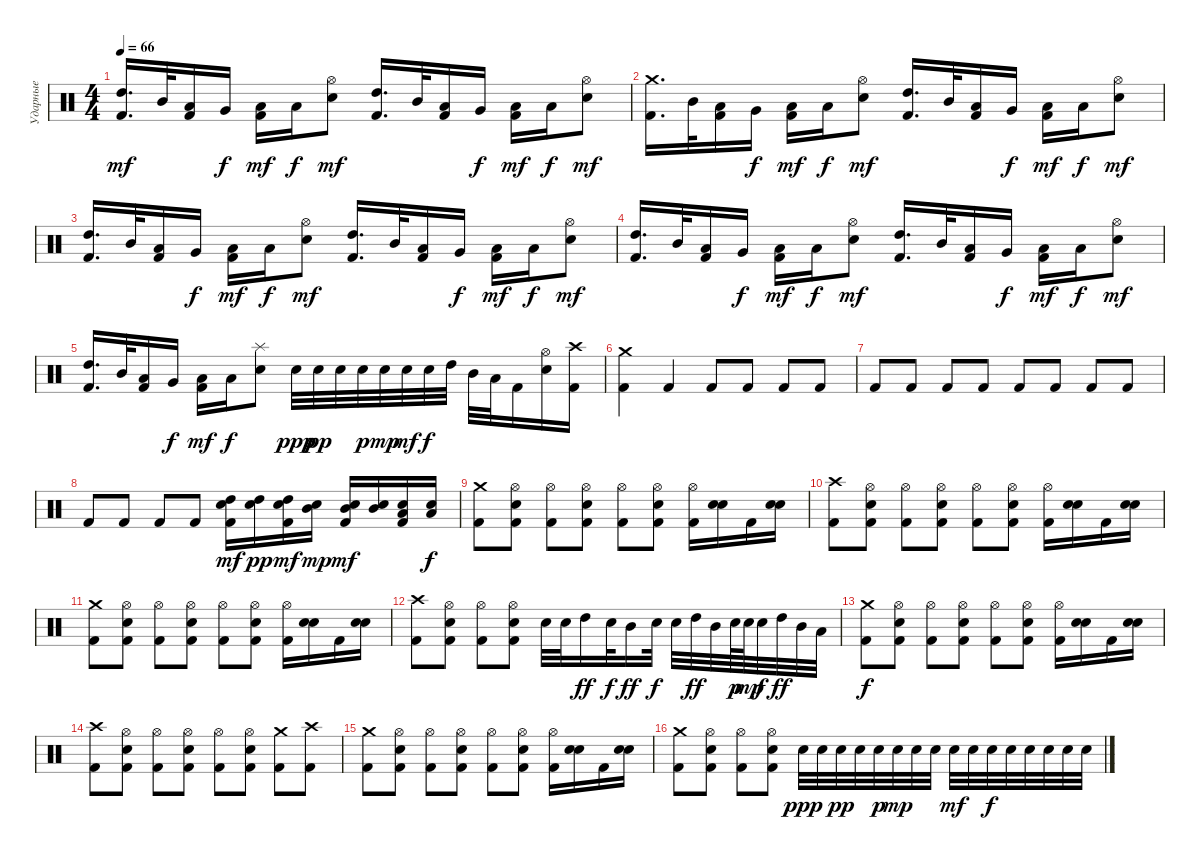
\track ("Ударные" "Ударные") {instrument percussion}
\staff {score}
\articulation defaults
\ts (4 4)
\tempo 66
\clef neutral
\ks c
("High Tom (hit)" "Kick (hit) 2").16{d dy mf} "Mid Tom (hit)".32 ("Low Tom (hit)" "Kick (hit) 2").16 "Very Low Tom (hit)".16{dy f} ("Low Floor Tom (hit)" "Kick (hit) 2").16{dy mf} "Low Tom (hit)".16{dy f} ("Hi-Hat (open)" "Snare (hit) 2").8{dy mf} ("High Tom (hit)" "Kick (hit) 2").16{d} "Mid Tom (hit)".32 ("Low Tom (hit)" "Kick (hit) 2").16 "Very Low Tom (hit)".16{dy f} ("Low Floor Tom (hit)" "Kick (hit) 2").16{dy mf} "Low Tom (hit)".16{dy f} ("Hi-Hat (open)" "Snare (hit) 2").8{dy mf} |
("Crash medium (hit)" "Kick (hit) 2").16{d} "Mid Tom (hit)".32 ("Low Tom (hit)" "Kick (hit) 2").16 "Very Low Tom (hit)".16{dy f} ("Low Floor Tom (hit)" "Kick (hit) 2").16{dy mf} "Low Tom (hit)".16{dy f} ("Hi-Hat (open)" "Snare (hit) 2").8{dy mf} ("High Tom (hit)" "Kick (hit) 2").16{d} "Mid Tom (hit)".32 ("Low Tom (hit)" "Kick (hit) 2").16 "Very Low Tom (hit)".16{dy f} ("Low Floor Tom (hit)" "Kick (hit) 2").16{dy mf} "Low Tom (hit)".16{dy f} ("Hi-Hat (open)" "Snare (hit) 2").8{dy mf} |
("High Tom (hit)" "Kick (hit) 2").16{d} "Mid Tom (hit)".32 ("Low Tom (hit)" "Kick (hit) 2").16 "Very Low Tom (hit)".16{dy f} ("Low Floor Tom (hit)" "Kick (hit) 2").16{dy mf} "Low Tom (hit)".16{dy f} ("Hi-Hat (open)" "Snare (hit) 2").8{dy mf} ("High Tom (hit)" "Kick (hit) 2").16{d} "Mid Tom (hit)".32 ("Low Tom (hit)" "Kick (hit) 2").16 "Very Low Tom (hit)".16{dy f} ("Low Floor Tom (hit)" "Kick (hit) 2").16{dy mf} "Low Tom (hit)".16{dy f} ("Hi-Hat (open)" "Snare (hit) 2").8{dy mf} |
("High Tom (hit)" "Kick (hit) 2").16{d} "Mid Tom (hit)".32 ("Low Tom (hit)" "Kick (hit) 2").16 "Very Low Tom (hit)".16{dy f} ("Low Floor Tom (hit)" "Kick (hit) 2").16{dy mf} "Low Tom (hit)".16{dy f} ("Hi-Hat (open)" "Snare (hit) 2").8{dy mf} ("High Tom (hit)" "Kick (hit) 2").16{d} "Mid Tom (hit)".32 ("Low Tom (hit)" "Kick (hit) 2").16 "Very Low Tom (hit)".16{dy f} ("Low Floor Tom (hit)" "Kick (hit) 2").16{dy mf} "Low Tom (hit)".16{dy f} ("Hi-Hat (open)" "Snare (hit) 2").8{dy mf} |
("High Tom (hit)" "Kick (hit) 2").16{d} "Mid Tom (hit)".32 ("Low Tom (hit)" "Kick (hit) 2").16 "Very Low Tom (hit)".16{dy f} ("Low Floor Tom (hit)" "Kick (hit) 2").16{dy mf} "Low Tom (hit)".16{dy f} ("Splash (hit)" "Snare (hit) 2").8 "Snare (hit) 2".32{dy ppp} "Snare (hit) 2".32{dy pp} "Snare (hit) 2".32 "Snare (hit) 2".32{dy p} "Snare (hit) 2".32{dy mp} "Snare (hit) 2".32{dy mf} "Snare (hit) 2".32{dy f} "High Tom (hit)".32 "Mid Tom (hit)".32 "Low Tom (hit)".32 "Kick (hit) 2".16 ("Hi-Hat (open)" "Snare (hit) 2").16 ("Crash high (hit)" "Kick (hit) 2").16 |
("Crash medium (hit)" "Kick (hit) 2").4 "Kick (hit) 2".4 "Kick (hit) 2".8 "Kick (hit) 2".8 "Kick (hit) 2".8 "Kick (hit) 2".8 |
"Kick (hit) 2".8 "Kick (hit) 2".8 "Kick (hit) 2".8 "Kick (hit) 2".8 "Kick (hit) 2".8 "Kick (hit) 2".8 "Kick (hit) 2".8 "Kick (hit) 2".8 |
"Kick (hit) 2".8 "Kick (hit) 2".8 "Kick (hit) 2".8 "Kick (hit) 2".8 ("High Tom (hit)" "Snare (hit) 2" "Kick (hit) 2").16{dy mf} ("High Tom (hit)" "Snare (hit) 2").16{dy pp} ("High Tom (hit)" "Snare (hit) 2" "Kick (hit) 2").16{dy mf} ("Mid Tom (hit)" "Snare (hit) 2").16{dy mp} ("Mid Tom (hit)" "Snare (hit) 2" "Kick (hit) 2").16{dy mf} ("Mid Tom (hit)" "Snare (hit) 2").16 ("Low Tom (hit)" "Snare (hit) 2" "Kick (hit) 2").16 ("Low Tom (hit)" "Snare (hit) 2").16{dy f} |
("Crash medium (hit)" "Kick (hit) 2").8 ("Hi-Hat (open)" "Snare (hit) 2" "Kick (hit) 2").8 ("Hi-Hat (open)" "Kick (hit) 2").8 ("Hi-Hat (open)" "Snare (hit) 2" "Kick (hit) 2").8 ("Hi-Hat (open)" "Kick (hit) 2").8 ("Hi-Hat (open)" "Snare (hit) 2" "Kick (hit) 2").8 ("Hi-Hat (open)" "Kick (hit) 2").16 ("Snare (hit) 2" "Snare (hit) 2").16{bd 120} "Kick (hit) 2".16 ("Snare (hit) 2" "Snare (hit) 2").16{bd 120} |
("Crash high (hit)" "Kick (hit) 2").8 ("Hi-Hat (open)" "Snare (hit) 2" "Kick (hit) 2").8 ("Hi-Hat (open)" "Kick (hit) 2").8 ("Hi-Hat (open)" "Snare (hit) 2" "Kick (hit) 2").8 ("Hi-Hat (open)" "Kick (hit) 2").8 ("Hi-Hat (open)" "Snare (hit) 2" "Kick (hit) 2").8 ("Hi-Hat (open)" "Kick (hit) 2").16 ("Snare (hit) 2" "Snare (hit) 2").16{bd 120} "Kick (hit) 2".16 ("Snare (hit) 2" "Snare (hit) 2").16{bd 120} |
("Crash medium (hit)" "Kick (hit) 2").8 ("Hi-Hat (open)" "Snare (hit) 2" "Kick (hit) 2").8 ("Hi-Hat (open)" "Kick (hit) 2").8 ("Hi-Hat (open)" "Snare (hit) 2" "Kick (hit) 2").8 ("Hi-Hat (open)" "Kick (hit) 2").8 ("Hi-Hat (open)" "Snare (hit) 2" "Kick (hit) 2").8 ("Hi-Hat (open)" "Kick (hit) 2").16 ("Snare (hit) 2" "Snare (hit) 2").16{bd 120} "Kick (hit) 2".16 ("Snare (hit) 2" "Snare (hit) 2").16{bd 120} |
("Crash high (hit)" "Kick (hit) 2").8 ("Hi-Hat (open)" "Snare (hit) 2" "Kick (hit) 2").8 ("Hi-Hat (open)" "Kick (hit) 2").8 ("Hi-Hat (open)" "Snare (hit) 2" "Kick (hit) 2").8 "Snare (hit) 2".32 "Snare (hit) 2".32 "High Tom (hit)".16{dy ff} "Snare (hit) 2".32{dy f} "Mid Tom (hit)".16{dy ff} "Snare (hit) 2".32{dy f} "Snare (hit) 2".32 "High Tom (hit)".32{dy ff} "Mid Tom (hit)".32 "Snare (hit) 2".64{dy p} "Snare (hit) 2".64{dy mp} "Snare (hit) 2".32{dy f} "High Tom (hit)".32{dy ff} "Mid Tom (hit)".32 "Low Tom (hit)".32 |
("Crash medium (hit)" "Kick (hit) 2").8{dy f} ("Hi-Hat (open)" "Snare (hit) 2" "Kick (hit) 2").8 ("Hi-Hat (open)" "Kick (hit) 2").8 ("Hi-Hat (open)" "Snare (hit) 2" "Kick (hit) 2").8 ("Hi-Hat (open)" "Kick (hit) 2").8 ("Hi-Hat (open)" "Snare (hit) 2" "Kick (hit) 2").8 ("Hi-Hat (open)" "Kick (hit) 2").16 ("Snare (hit) 2" "Snare (hit) 2").16{bd 120} "Kick (hit) 2".16 ("Snare (hit) 2" "Snare (hit) 2").16{bd 120} |
("Crash high (hit)" "Kick (hit) 2").8 ("Hi-Hat (open)" "Snare (hit) 2" "Kick (hit) 2").8 ("Hi-Hat (open)" "Kick (hit) 2").8 ("Hi-Hat (open)" "Snare (hit) 2" "Kick (hit) 2").8 ("Hi-Hat (open)" "Kick (hit) 2").8 ("Hi-Hat (open)" "Snare (hit) 2" "Kick (hit) 2").8 ("Crash medium (hit)" "Kick (hit) 2").8 ("Crash high (hit)" "Kick (hit) 2").8 |
("Crash medium (hit)" "Kick (hit) 2").8 ("Hi-Hat (open)" "Snare (hit) 2" "Kick (hit) 2").8 ("Hi-Hat (open)" "Kick (hit) 2").8 ("Hi-Hat (open)" "Snare (hit) 2" "Kick (hit) 2").8 ("Hi-Hat (open)" "Kick (hit) 2").8 ("Hi-Hat (open)" "Snare (hit) 2" "Kick (hit) 2").8 ("Hi-Hat (open)" "Kick (hit) 2").16 ("Snare (hit) 2" "Snare (hit) 2").16{bd 120} "Kick (hit) 2".16 ("Snare (hit) 2" "Snare (hit) 2").16{bd 120} |
("Crash medium (hit)" "Kick (hit) 2").8 ("Hi-Hat (open)" "Snare (hit) 2" "Kick (hit) 2").8 ("Hi-Hat (open)" "Kick (hit) 2").8 ("Hi-Hat (open)" "Snare (hit) 2" "Kick (hit) 2").8 "Snare (hit) 2".32{dy ppp} "Snare (hit) 2".32 "Snare (hit) 2".32{dy pp} "Snare (hit) 2".32 "Snare (hit) 2".32{dy p} "Snare (hit) 2".32{dy mp} "Snare (hit) 2".32 "Snare (hit) 2".32 "Snare (hit) 2".32{dy mf} "Snare (hit) 2".32 "Snare (hit) 2".32{dy f} "Snare (hit) 2".32 "Snare (hit) 2".32 "Snare (hit) 2".32 "Snare (hit) 2".32 "Snare (hit) 2".32
